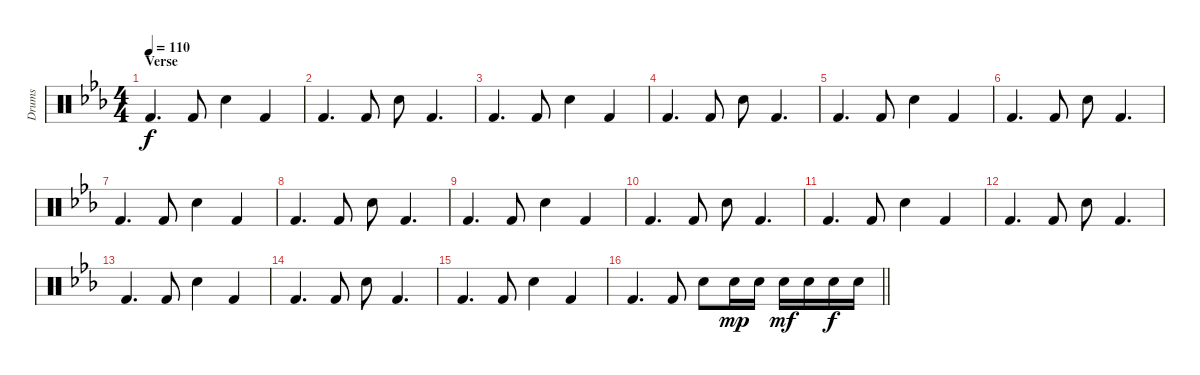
\track ("Drums" "Drums") {instrument percussion}
\staff {score}
\articulation defaults
\ts (4 4)
\section ("" "Verse")
\tempo 110
\clef neutral
\ks cminor "Kick (hit) 2".4{d dy f} "Kick (hit) 2".8 "Snare (hit) 2".4 "Kick (hit) 2".4
|
"Kick (hit) 2".4{d} "Kick (hit) 2".8 "Snare (hit) 2".8 "Kick (hit) 2".4{d} |
"Kick (hit) 2".4{d} "Kick (hit) 2".8 "Snare (hit) 2".4 "Kick (hit) 2".4 |
"Kick (hit) 2".4{d} "Kick (hit) 2".8 "Snare (hit) 2".8 "Kick (hit) 2".4{d} |
"Kick (hit) 2".4{d} "Kick (hit) 2".8 "Snare (hit) 2".4 "Kick (hit) 2".4 |
"Kick (hit) 2".4{d} "Kick (hit) 2".8 "Snare (hit) 2".8 "Kick (hit) 2".4{d} |
"Kick (hit) 2".4{d} "Kick (hit) 2".8 "Snare (hit) 2".4 "Kick (hit) 2".4 |
"Kick (hit) 2".4{d} "Kick (hit) 2".8 "Snare (hit) 2".8 "Kick (hit) 2".4{d} |
"Kick (hit) 2".4{d} "Kick (hit) 2".8 "Snare (hit) 2".4 "Kick (hit) 2".4 |
"Kick (hit) 2".4{d} "Kick (hit) 2".8 "Snare (hit) 2".8 "Kick (hit) 2".4{d} |
"Kick (hit) 2".4{d} "Kick (hit) 2".8 "Snare (hit) 2".4 "Kick (hit) 2".4 |
"Kick (hit) 2".4{d} "Kick (hit) 2".8 "Snare (hit) 2".8 "Kick (hit) 2".4{d} |
"Kick (hit) 2".4{d} "Kick (hit) 2".8 "Snare (hit) 2".4 "Kick (hit) 2".4 |
"Kick (hit) 2".4{d} "Kick (hit) 2".8 "Snare (hit) 2".8 "Kick (hit) 2".4{d} |
"Kick (hit) 2".4{d} "Kick (hit) 2".8 "Snare (hit) 2".4 "Kick (hit) 2".4 |
\barLineRight lightlight "Kick (hit) 2".4{d} "Kick (hit) 2".8 "Snare (hit) 2".8 "Electric Snare (hit)".16{dy mp} "Electric Snare (hit)".16 "Electric Snare (hit)".16{dy mf} "Electric Snare (hit)".16 "Electric Snare (hit)".16{dy f} "Electric Snare (hit)".16
